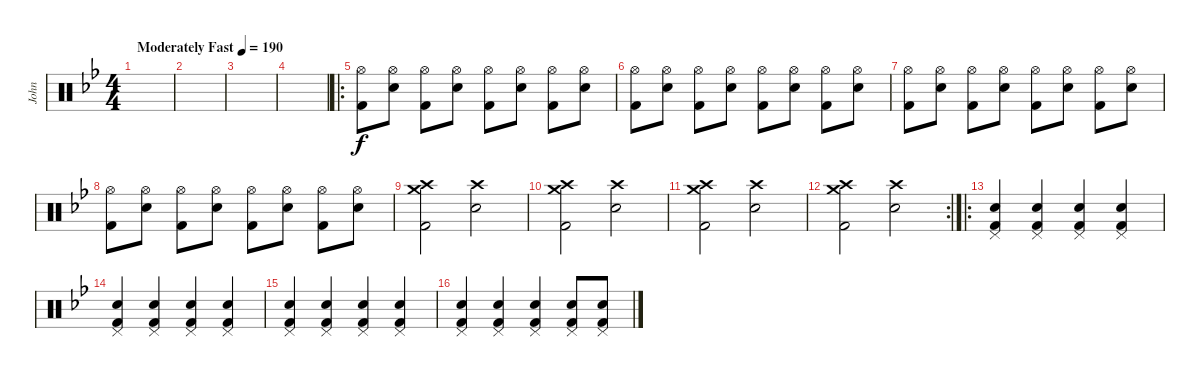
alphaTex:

\track ("John" "John") {instrument percussion}
\staff {score}
\articulation defaults
\ts (4 4)
\tempo (190 "Moderately Fast")
\clef neutral
\ks bb
|
|
|
|
\ro
("Hi-Hat (open)" "Kick (hit) 2").8 ("Hi-Hat (open)" "Electric Snare (hit)").8 ("Hi-Hat (open)" "Kick (hit) 2").8 ("Hi-Hat (open)" "Electric Snare (hit)").8 ("Hi-Hat (open)" "Kick (hit) 2").8 ("Hi-Hat (open)" "Electric Snare (hit)").8 ("Hi-Hat (open)" "Kick (hit) 2").8 ("Hi-Hat (open)" "Electric Snare (hit)").8 |
("Hi-Hat (open)" "Kick (hit) 2").8 ("Hi-Hat (open)" "Electric Snare (hit)").8 ("Hi-Hat (open)" "Kick (hit) 2").8 ("Hi-Hat (open)" "Electric Snare (hit)").8 ("Hi-Hat (open)" "Kick (hit) 2").8 ("Hi-Hat (open)" "Electric Snare (hit)").8 ("Hi-Hat (open)" "Kick (hit) 2").8 ("Hi-Hat (open)" "Electric Snare (hit)").8 |
("Hi-Hat (open)" "Kick (hit) 2").8 ("Hi-Hat (open)" "Electric Snare (hit)").8 ("Hi-Hat (open)" "Kick (hit) 2").8 ("Hi-Hat (open)" "Electric Snare (hit)").8 ("Hi-Hat (open)" "Kick (hit) 2").8 ("Hi-Hat (open)" "Electric Snare (hit)").8 ("Hi-Hat (open)" "Kick (hit) 2").8 ("Hi-Hat (open)" "Electric Snare (hit)").8 |
("Hi-Hat (open)" "Kick (hit) 2").8 ("Hi-Hat (open)" "Electric Snare (hit)").8 ("Hi-Hat (open)" "Kick (hit) 2").8 ("Hi-Hat (open)" "Electric Snare (hit)").8 ("Hi-Hat (open)" "Kick (hit) 2").8 ("Hi-Hat (open)" "Electric Snare (hit)").8 ("Hi-Hat (open)" "Kick (hit) 2").8 ("Hi-Hat (open)" "Electric Snare (hit)").8 |
("Crash medium (hit)" "Crash high (hit)" "Kick (hit) 2").2 ("Crash high (hit)" "Electric Snare (hit)").2 |
("Crash medium (hit)" "Crash high (hit)" "Kick (hit) 2").2 ("Crash high (hit)" "Electric Snare (hit)").2 |
("Crash medium (hit)" "Crash high (hit)" "Kick (hit) 2").2 ("Crash high (hit)" "Electric Snare (hit)").2 |
\rc 2
("Crash medium (hit)" "Crash high (hit)" "Kick (hit) 2").2 ("Crash high (hit)" "Electric Snare (hit)").2 |
\ro
("Electric Snare (hit)" "Pedal Hi-Hat (hit)" "Kick (hit) 2").4 ("Electric Snare (hit)" "Pedal Hi-Hat (hit)" "Kick (hit) 2").4 ("Electric Snare (hit)" "Pedal Hi-Hat (hit)" "Kick (hit) 2").4 ("Electric Snare (hit)" "Pedal Hi-Hat (hit)" "Kick (hit) 2").4 |
("Electric Snare (hit)" "Pedal Hi-Hat (hit)" "Kick (hit) 2").4 ("Electric Snare (hit)" "Pedal Hi-Hat (hit)" "Kick (hit) 2").4 ("Electric Snare (hit)" "Pedal Hi-Hat (hit)" "Kick (hit) 2").4 ("Electric Snare (hit)" "Pedal Hi-Hat (hit)" "Kick (hit) 2").4 |
("Electric Snare (hit)" "Pedal Hi-Hat (hit)" "Kick (hit) 2").4 ("Electric Snare (hit)" "Pedal Hi-Hat (hit)" "Kick (hit) 2").4 ("Electric Snare (hit)" "Pedal Hi-Hat (hit)" "Kick (hit) 2").4 ("Electric Snare (hit)" "Pedal Hi-Hat (hit)" "Kick (hit) 2").4 |
("Electric Snare (hit)" "Pedal Hi-Hat (hit)" "Kick (hit) 2").4 ("Electric Snare (hit)" "Pedal Hi-Hat (hit)" "Kick (hit) 2").4 ("Electric Snare (hit)" "Pedal Hi-Hat (hit)" "Kick (hit) 2").4 ("Electric Snare (hit)" "Pedal Hi-Hat (hit)" "Kick (hit) 2").8 ("Electric Snare (hit)" "Pedal Hi-Hat (hit)" "Kick (hit) 2").8
